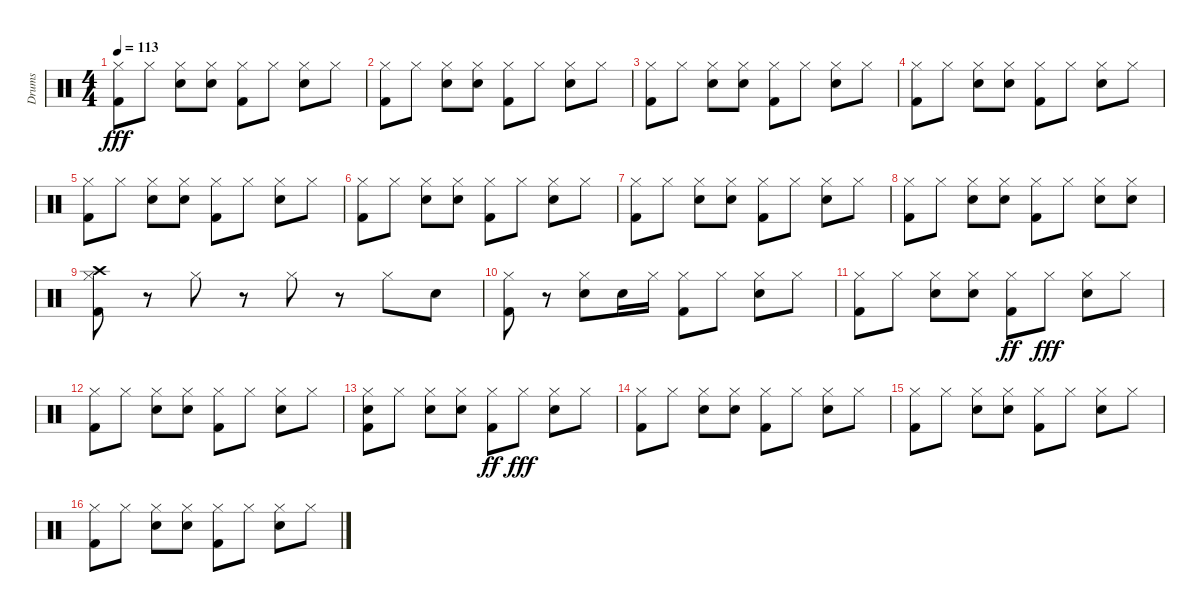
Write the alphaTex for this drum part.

\track ("Drums" "Drums") {instrument percussion}
\staff {score}
\articulation defaults
\ts (4 4)
\tempo 113
\clef neutral
\ks c
("Hi-Hat (closed)" "Kick (hit) 2").8{dy fff} "Hi-Hat (closed)".8 ("Hi-Hat (closed)" "Electric Snare (hit)").8 ("Hi-Hat (closed)" "Electric Snare (hit)").8 ("Hi-Hat (closed)" "Kick (hit) 2").8 "Hi-Hat (closed)".8 ("Hi-Hat (closed)" "Electric Snare (hit)").8 "Hi-Hat (closed)".8 |
("Hi-Hat (closed)" "Kick (hit) 2").8 "Hi-Hat (closed)".8 ("Hi-Hat (closed)" "Electric Snare (hit)").8 ("Hi-Hat (closed)" "Electric Snare (hit)").8 ("Hi-Hat (closed)" "Kick (hit) 2").8 "Hi-Hat (closed)".8 ("Hi-Hat (closed)" "Electric Snare (hit)").8 "Hi-Hat (closed)".8 |
("Hi-Hat (closed)" "Kick (hit) 2").8 "Hi-Hat (closed)".8 ("Hi-Hat (closed)" "Electric Snare (hit)").8 ("Hi-Hat (closed)" "Electric Snare (hit)").8 ("Hi-Hat (closed)" "Kick (hit) 2").8 "Hi-Hat (closed)".8 ("Hi-Hat (closed)" "Electric Snare (hit)").8 "Hi-Hat (closed)".8 |
("Hi-Hat (closed)" "Kick (hit) 2").8 "Hi-Hat (closed)".8 ("Hi-Hat (closed)" "Electric Snare (hit)").8 ("Hi-Hat (closed)" "Electric Snare (hit)").8 ("Hi-Hat (closed)" "Kick (hit) 2").8 "Hi-Hat (closed)".8 ("Hi-Hat (closed)" "Electric Snare (hit)").8 "Hi-Hat (closed)".8 |
("Hi-Hat (closed)" "Kick (hit) 2").8 "Hi-Hat (closed)".8 ("Hi-Hat (closed)" "Electric Snare (hit)").8 ("Hi-Hat (closed)" "Electric Snare (hit)").8 ("Hi-Hat (closed)" "Kick (hit) 2").8 "Hi-Hat (closed)".8 ("Hi-Hat (closed)" "Electric Snare (hit)").8 "Hi-Hat (closed)".8 |
("Hi-Hat (closed)" "Kick (hit) 2").8 "Hi-Hat (closed)".8 ("Hi-Hat (closed)" "Electric Snare (hit)").8 ("Hi-Hat (closed)" "Electric Snare (hit)").8 ("Hi-Hat (closed)" "Kick (hit) 2").8 "Hi-Hat (closed)".8 ("Hi-Hat (closed)" "Electric Snare (hit)").8 "Hi-Hat (closed)".8 |
("Hi-Hat (closed)" "Kick (hit) 2").8 "Hi-Hat (closed)".8 ("Hi-Hat (closed)" "Electric Snare (hit)").8 ("Hi-Hat (closed)" "Electric Snare (hit)").8 ("Hi-Hat (closed)" "Kick (hit) 2").8 "Hi-Hat (closed)".8 ("Hi-Hat (closed)" "Electric Snare (hit)").8 "Hi-Hat (closed)".8 |
("Hi-Hat (closed)" "Kick (hit) 2").8 "Hi-Hat (closed)".8 ("Hi-Hat (closed)" "Electric Snare (hit)").8 ("Hi-Hat (closed)" "Electric Snare (hit)").8 ("Hi-Hat (closed)" "Kick (hit) 2").8 "Hi-Hat (closed)".8 ("Hi-Hat (closed)" "Electric Snare (hit)").8 ("Hi-Hat (closed)" "Electric Snare (hit)").8 |
("Hi-Hat (closed)" "Crash high (hit)" "Kick (hit) 2").8 r.8 "Hi-Hat (closed)".8 r.8 "Hi-Hat (closed)".8 r.8 "Hi-Hat (closed)".8 "Electric Snare (hit)".8 |
("Hi-Hat (closed)" "Kick (hit) 2").8 r.8 ("Hi-Hat (closed)" "Electric Snare (hit)").8 "Electric Snare (hit)".16 "Hi-Hat (closed)".16 ("Hi-Hat (closed)" "Kick (hit) 2").8 "Hi-Hat (closed)".8 ("Hi-Hat (closed)" "Electric Snare (hit)").8 "Hi-Hat (closed)".8 |
("Hi-Hat (closed)" "Kick (hit) 2").8 "Hi-Hat (closed)".8 ("Hi-Hat (closed)" "Electric Snare (hit)").8 ("Hi-Hat (closed)" "Electric Snare (hit)").8 ("Hi-Hat (closed)" "Kick (hit) 2").8{dy ff} "Hi-Hat (closed)".8{dy fff} ("Hi-Hat (closed)" "Electric Snare (hit)").8 "Hi-Hat (closed)".8 |
("Hi-Hat (closed)" "Kick (hit) 2").8 "Hi-Hat (closed)".8 ("Hi-Hat (closed)" "Electric Snare (hit)").8 ("Hi-Hat (closed)" "Electric Snare (hit)").8 ("Hi-Hat (closed)" "Kick (hit) 2").8 "Hi-Hat (closed)".8 ("Hi-Hat (closed)" "Electric Snare (hit)").8 "Hi-Hat (closed)".8 |
("Hi-Hat (closed)" "Snare (hit) 2" "Kick (hit) 2").8 "Hi-Hat (closed)".8 ("Hi-Hat (closed)" "Electric Snare (hit)").8 ("Hi-Hat (closed)" "Electric Snare (hit)").8 ("Hi-Hat (closed)" "Kick (hit) 2").8{dy ff} "Hi-Hat (closed)".8{dy fff} ("Hi-Hat (closed)" "Electric Snare (hit)").8 "Hi-Hat (closed)".8 |
("Hi-Hat (closed)" "Kick (hit) 2").8 "Hi-Hat (closed)".8 ("Hi-Hat (closed)" "Electric Snare (hit)").8 ("Hi-Hat (closed)" "Electric Snare (hit)").8 ("Hi-Hat (closed)" "Kick (hit) 2").8 "Hi-Hat (closed)".8 ("Hi-Hat (closed)" "Electric Snare (hit)").8 "Hi-Hat (closed)".8 |
("Hi-Hat (closed)" "Kick (hit) 2").8 "Hi-Hat (closed)".8 ("Hi-Hat (closed)" "Electric Snare (hit)").8 ("Hi-Hat (closed)" "Electric Snare (hit)").8 ("Hi-Hat (closed)" "Kick (hit) 2").8 "Hi-Hat (closed)".8 ("Hi-Hat (closed)" "Electric Snare (hit)").8 "Hi-Hat (closed)".8 |
("Hi-Hat (closed)" "Kick (hit) 2").8 "Hi-Hat (closed)".8 ("Hi-Hat (closed)" "Electric Snare (hit)").8 ("Hi-Hat (closed)" "Electric Snare (hit)").8 ("Hi-Hat (closed)" "Kick (hit) 2").8 "Hi-Hat (closed)".8 ("Hi-Hat (closed)" "Electric Snare (hit)").8 "Hi-Hat (closed)".8
